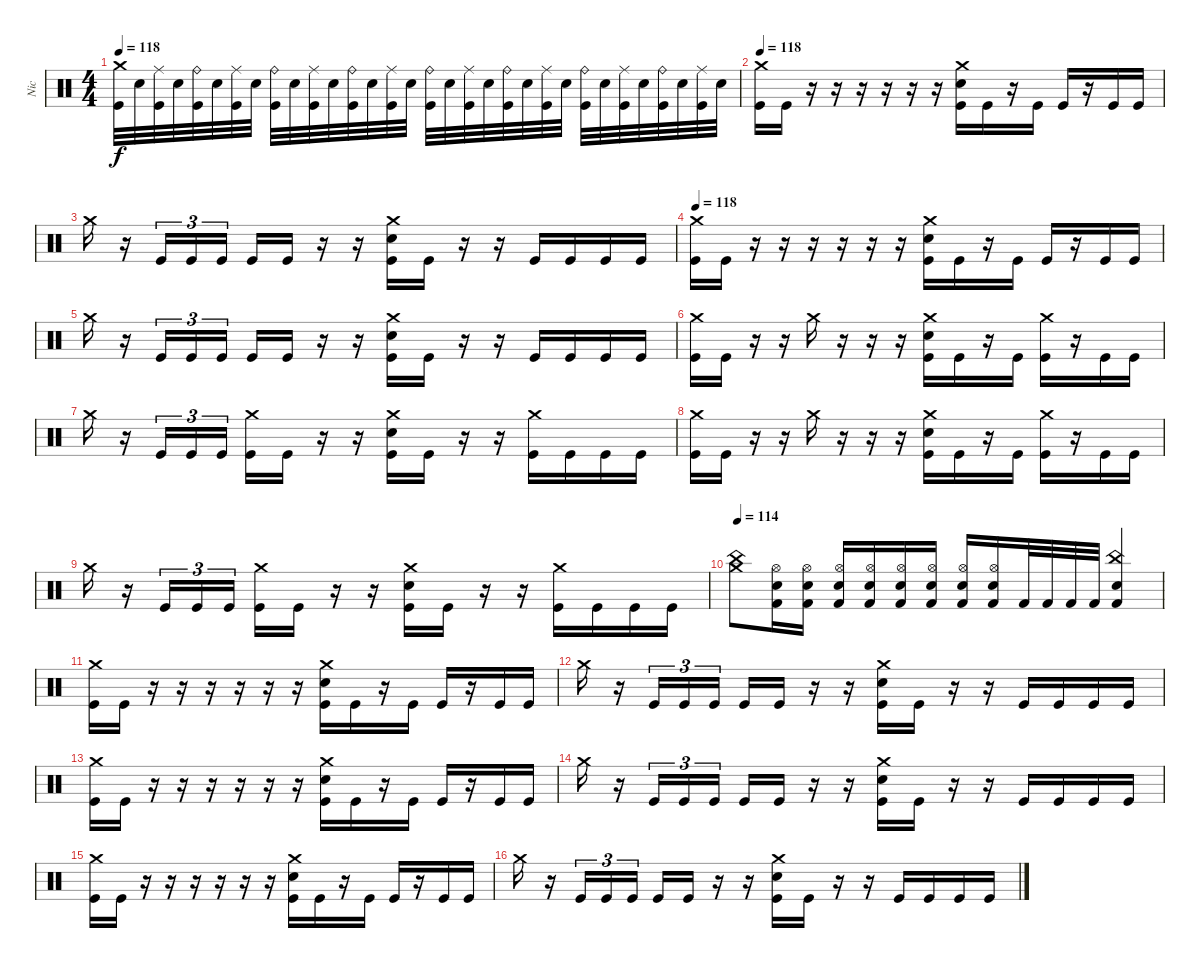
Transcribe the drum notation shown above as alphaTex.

\track ("Nic" "Nic") {instrument percussion}
\staff {score}
\articulation defaults
\ts (4 4)
\tempo 118
\clef neutral
\ks c
("Crash medium (hit)" "Kick (hit)").32{dy f} "Snare (hit) 2".32 ("Ride (middle)" "Kick (hit)").32 "Snare (hit) 2".32 ("Ride (bell)" "Kick (hit)").32 "Snare (hit) 2".32 ("Ride (middle)" "Kick (hit)").32 "Snare (hit) 2".32 ("Ride (bell)" "Kick (hit)").32 "Snare (hit) 2".32 ("Ride (middle)" "Kick (hit)").32 "Snare (hit) 2".32 ("Ride (bell)" "Kick (hit)").32 "Snare (hit) 2".32 ("Ride (middle)" "Kick (hit)").32 "Snare (hit) 2".32 ("Ride (bell)" "Kick (hit)").32 "Snare (hit) 2".32 ("Ride (middle)" "Kick (hit)").32 "Snare (hit) 2".32 ("Ride (bell)" "Kick (hit)").32 "Snare (hit) 2".32 ("Ride (middle)" "Kick (hit)").32 "Snare (hit) 2".32 ("Ride (bell)" "Kick (hit)").32 "Snare (hit) 2".32 ("Ride (middle)" "Kick (hit)").32 "Snare (hit) 2".32 ("Ride (bell)" "Kick (hit)").32 "Snare (hit) 2".32 ("Ride (middle)" "Kick (hit)").32 "Snare (hit) 2".32 |
\tempo 118
("Crash medium (hit)" "Kick (hit)").16 "Kick (hit)".16 r.16 r.16 r.16 r.16 r.16 r.16 ("Crash medium (hit)" "Snare (hit) 2" "Kick (hit)").16 "Kick (hit)".16 r.16 "Kick (hit)".16 "Kick (hit)".16 r.16 "Kick (hit)".16 "Kick (hit)".16 |
"Crash medium (hit)".16 r.16 "Kick (hit)".16{tu (3 2)} "Kick (hit)".16{tu (3 2)} "Kick (hit)".16{tu (3 2)} "Kick (hit)".16 "Kick (hit)".16 r.16 r.16 ("Crash medium (hit)" "Snare (hit) 2" "Kick (hit)").16 "Kick (hit)".16 r.16 r.16 "Kick (hit)".16 "Kick (hit)".16 "Kick (hit)".16 "Kick (hit)".16 |
\tempo 118
("Crash medium (hit)" "Kick (hit)").16 "Kick (hit)".16 r.16 r.16 r.16 r.16 r.16 r.16 ("Crash medium (hit)" "Snare (hit) 2" "Kick (hit)").16 "Kick (hit)".16 r.16 "Kick (hit)".16 "Kick (hit)".16 r.16 "Kick (hit)".16 "Kick (hit)".16 |
"Crash medium (hit)".16 r.16 "Kick (hit)".16{tu (3 2)} "Kick (hit)".16{tu (3 2)} "Kick (hit)".16{tu (3 2)} "Kick (hit)".16 "Kick (hit)".16 r.16 r.16 ("Crash medium (hit)" "Snare (hit) 2" "Kick (hit)").16 "Kick (hit)".16 r.16 r.16 "Kick (hit)".16 "Kick (hit)".16 "Kick (hit)".16 "Kick (hit)".16 |
("Crash medium (hit)" "Kick (hit)").16 "Kick (hit)".16 r.16 r.16 "Crash medium (hit)".16 r.16 r.16 r.16 ("Crash medium (hit)" "Snare (hit) 2" "Kick (hit)").16 "Kick (hit)".16 r.16 "Kick (hit)".16 ("Crash medium (hit)" "Kick (hit)").16 r.16 "Kick (hit)".16 "Kick (hit)".16 |
"Crash medium (hit)".16 r.16 "Kick (hit)".16{tu (3 2)} "Kick (hit)".16{tu (3 2)} "Kick (hit)".16{tu (3 2)} ("Crash medium (hit)" "Kick (hit)").16 "Kick (hit)".16 r.16 r.16 ("Crash medium (hit)" "Snare (hit) 2" "Kick (hit)").16 "Kick (hit)".16 r.16 r.16 ("Crash medium (hit)" "Kick (hit)").16 "Kick (hit)".16 "Kick (hit)".16 "Kick (hit)".16 |
("Crash medium (hit)" "Kick (hit)").16 "Kick (hit)".16 r.16 r.16 "Crash medium (hit)".16 r.16 r.16 r.16 ("Crash medium (hit)" "Snare (hit) 2" "Kick (hit)").16 "Kick (hit)".16 r.16 "Kick (hit)".16 ("Crash medium (hit)" "Kick (hit)").16 r.16 "Kick (hit)".16 "Kick (hit)".16 |
"Crash medium (hit)".16 r.16 "Kick (hit)".16{tu (3 2)} "Kick (hit)".16{tu (3 2)} "Kick (hit)".16{tu (3 2)} ("Crash medium (hit)" "Kick (hit)").16 "Kick (hit)".16 r.16 r.16 ("Crash medium (hit)" "Snare (hit) 2" "Kick (hit)").16 "Kick (hit)".16 r.16 r.16 ("Crash medium (hit)" "Kick (hit)").16 "Kick (hit)".16 "Kick (hit)".16 "Kick (hit)".16 |
\tempo 114
("China (hit)" "Crash medium (hit)").8 ("Hi-Hat (open)" "Snare (hit) 2" "Kick (hit) 2").16 ("Hi-Hat (open)" "Snare (hit) 2" "Kick (hit) 2").16 ("Hi-Hat (open)" "Snare (hit) 2" "Kick (hit) 2").16 ("Hi-Hat (open)" "Snare (hit) 2" "Kick (hit) 2").16 ("Hi-Hat (open)" "Snare (hit) 2" "Kick (hit) 2").16 ("Hi-Hat (open)" "Snare (hit) 2" "Kick (hit) 2").16 ("Hi-Hat (open)" "Snare (hit) 2" "Kick (hit) 2").16 ("Hi-Hat (open)" "Snare (hit) 2" "Kick (hit) 2").16 "Kick (hit) 2".32 "Kick (hit) 2".32 "Kick (hit) 2".32 "Kick (hit) 2".32 ("China (hit)" "Snare (hit) 2" "Kick (hit) 2").4 |
("Crash medium (hit)" "Kick (hit)").16 "Kick (hit)".16 r.16 r.16 r.16 r.16 r.16 r.16 ("Crash medium (hit)" "Snare (hit) 2" "Kick (hit)").16 "Kick (hit)".16 r.16 "Kick (hit)".16 "Kick (hit)".16 r.16 "Kick (hit)".16 "Kick (hit)".16 |
"Crash medium (hit)".16 r.16 "Kick (hit)".16{tu (3 2)} "Kick (hit)".16{tu (3 2)} "Kick (hit)".16{tu (3 2)} "Kick (hit)".16 "Kick (hit)".16 r.16 r.16 ("Crash medium (hit)" "Snare (hit) 2" "Kick (hit)").16 "Kick (hit)".16 r.16 r.16 "Kick (hit)".16 "Kick (hit)".16 "Kick (hit)".16 "Kick (hit)".16 |
("Crash medium (hit)" "Kick (hit)").16 "Kick (hit)".16 r.16 r.16 r.16 r.16 r.16 r.16 ("Crash medium (hit)" "Snare (hit) 2" "Kick (hit)").16 "Kick (hit)".16 r.16 "Kick (hit)".16 "Kick (hit)".16 r.16 "Kick (hit)".16 "Kick (hit)".16 |
"Crash medium (hit)".16 r.16 "Kick (hit)".16{tu (3 2)} "Kick (hit)".16{tu (3 2)} "Kick (hit)".16{tu (3 2)} "Kick (hit)".16 "Kick (hit)".16 r.16 r.16 ("Crash medium (hit)" "Snare (hit) 2" "Kick (hit)").16 "Kick (hit)".16 r.16 r.16 "Kick (hit)".16 "Kick (hit)".16 "Kick (hit)".16 "Kick (hit)".16 |
("Crash medium (hit)" "Kick (hit)").16 "Kick (hit)".16 r.16 r.16 r.16 r.16 r.16 r.16 ("Crash medium (hit)" "Snare (hit) 2" "Kick (hit)").16 "Kick (hit)".16 r.16 "Kick (hit)".16 "Kick (hit)".16 r.16 "Kick (hit)".16 "Kick (hit)".16 |
"Crash medium (hit)".16 r.16 "Kick (hit)".16{tu (3 2)} "Kick (hit)".16{tu (3 2)} "Kick (hit)".16{tu (3 2)} "Kick (hit)".16 "Kick (hit)".16 r.16 r.16 ("Crash medium (hit)" "Snare (hit) 2" "Kick (hit)").16 "Kick (hit)".16 r.16 r.16 "Kick (hit)".16 "Kick (hit)".16 "Kick (hit)".16 "Kick (hit)".16
